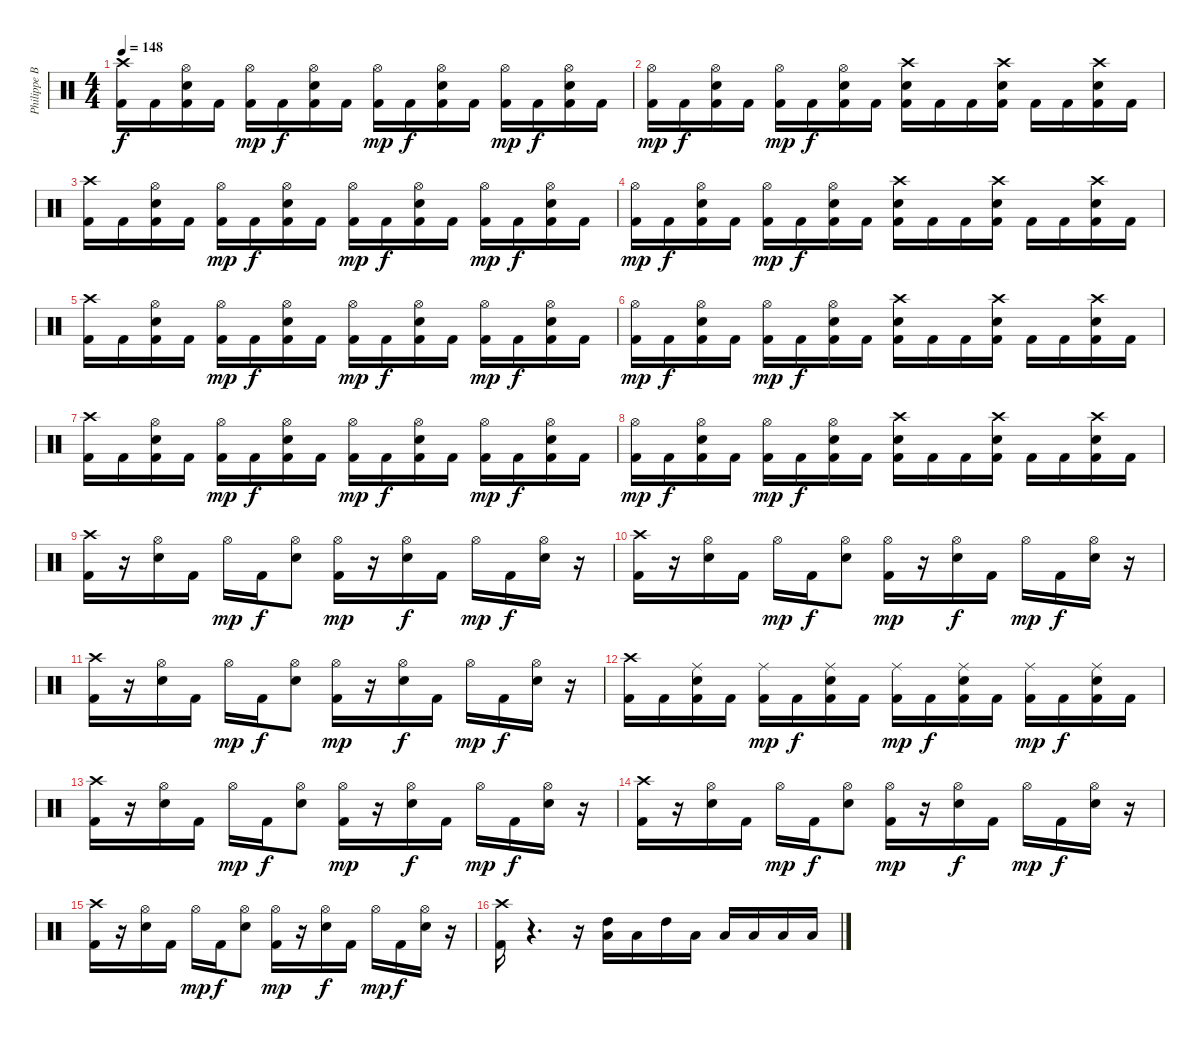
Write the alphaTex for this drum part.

\track ("Philippe Borda" "Philippe B") {instrument percussion}
\staff {score}
\articulation defaults
\ts (4 4)
\tempo 148
\clef neutral
\ks c
("Crash high (hit)" "Kick (hit) 2").16{dy f} "Kick (hit) 2".16 ("Kick (hit) 2" "Snare (hit) 2" "Hi-Hat (open)").16 "Kick (hit) 2".16 ("Kick (hit) 2" "Hi-Hat (open)").16{dy mp} "Kick (hit) 2".16{dy f} ("Kick (hit) 2" "Snare (hit) 2" "Hi-Hat (open)").16 "Kick (hit) 2".16 ("Kick (hit) 2" "Hi-Hat (open)").16{dy mp} "Kick (hit) 2".16{dy f} ("Kick (hit) 2" "Snare (hit) 2" "Hi-Hat (open)").16 "Kick (hit) 2".16 ("Kick (hit) 2" "Hi-Hat (open)").16{dy mp} "Kick (hit) 2".16{dy f} ("Kick (hit) 2" "Snare (hit) 2" "Hi-Hat (open)").16 "Kick (hit) 2".16 |
("Kick (hit) 2" "Hi-Hat (open)").16{dy mp} "Kick (hit) 2".16{dy f} ("Kick (hit) 2" "Snare (hit) 2" "Hi-Hat (open)").16 "Kick (hit) 2".16 ("Kick (hit) 2" "Hi-Hat (open)").16{dy mp} "Kick (hit) 2".16{dy f} ("Kick (hit) 2" "Hi-Hat (open)" "Snare (hit) 2").16 "Kick (hit) 2".16 ("Crash high (hit)" "Kick (hit) 2" "Snare (hit) 2").16 "Kick (hit) 2".16 "Kick (hit) 2".16 ("Crash high (hit)" "Kick (hit) 2" "Snare (hit) 2").16 "Kick (hit) 2".16 "Kick (hit) 2".16 ("Crash high (hit)" "Kick (hit) 2" "Snare (hit) 2").16 "Kick (hit) 2".16 |
("Crash high (hit)" "Kick (hit) 2").16 "Kick (hit) 2".16 ("Kick (hit) 2" "Snare (hit) 2" "Hi-Hat (open)").16 "Kick (hit) 2".16 ("Kick (hit) 2" "Hi-Hat (open)").16{dy mp} "Kick (hit) 2".16{dy f} ("Kick (hit) 2" "Snare (hit) 2" "Hi-Hat (open)").16 "Kick (hit) 2".16 ("Kick (hit) 2" "Hi-Hat (open)").16{dy mp} "Kick (hit) 2".16{dy f} ("Kick (hit) 2" "Snare (hit) 2" "Hi-Hat (open)").16 "Kick (hit) 2".16 ("Kick (hit) 2" "Hi-Hat (open)").16{dy mp} "Kick (hit) 2".16{dy f} ("Kick (hit) 2" "Snare (hit) 2" "Hi-Hat (open)").16 "Kick (hit) 2".16 |
("Kick (hit) 2" "Hi-Hat (open)").16{dy mp} "Kick (hit) 2".16{dy f} ("Kick (hit) 2" "Snare (hit) 2" "Hi-Hat (open)").16 "Kick (hit) 2".16 ("Kick (hit) 2" "Hi-Hat (open)").16{dy mp} "Kick (hit) 2".16{dy f} ("Kick (hit) 2" "Hi-Hat (open)" "Snare (hit) 2").16 "Kick (hit) 2".16 ("Crash high (hit)" "Kick (hit) 2" "Snare (hit) 2").16 "Kick (hit) 2".16 "Kick (hit) 2".16 ("Crash high (hit)" "Kick (hit) 2" "Snare (hit) 2").16 "Kick (hit) 2".16 "Kick (hit) 2".16 ("Crash high (hit)" "Kick (hit) 2" "Snare (hit) 2").16 "Kick (hit) 2".16 |
("Crash high (hit)" "Kick (hit) 2").16 "Kick (hit) 2".16 ("Kick (hit) 2" "Snare (hit) 2" "Hi-Hat (open)").16 "Kick (hit) 2".16 ("Kick (hit) 2" "Hi-Hat (open)").16{dy mp} "Kick (hit) 2".16{dy f} ("Kick (hit) 2" "Snare (hit) 2" "Hi-Hat (open)").16 "Kick (hit) 2".16 ("Kick (hit) 2" "Hi-Hat (open)").16{dy mp} "Kick (hit) 2".16{dy f} ("Kick (hit) 2" "Snare (hit) 2" "Hi-Hat (open)").16 "Kick (hit) 2".16 ("Kick (hit) 2" "Hi-Hat (open)").16{dy mp} "Kick (hit) 2".16{dy f} ("Kick (hit) 2" "Snare (hit) 2" "Hi-Hat (open)").16 "Kick (hit) 2".16 |
("Kick (hit) 2" "Hi-Hat (open)").16{dy mp} "Kick (hit) 2".16{dy f} ("Kick (hit) 2" "Snare (hit) 2" "Hi-Hat (open)").16 "Kick (hit) 2".16 ("Kick (hit) 2" "Hi-Hat (open)").16{dy mp} "Kick (hit) 2".16{dy f} ("Kick (hit) 2" "Hi-Hat (open)" "Snare (hit) 2").16 "Kick (hit) 2".16 ("Crash high (hit)" "Kick (hit) 2" "Snare (hit) 2").16 "Kick (hit) 2".16 "Kick (hit) 2".16 ("Crash high (hit)" "Kick (hit) 2" "Snare (hit) 2").16 "Kick (hit) 2".16 "Kick (hit) 2".16 ("Crash high (hit)" "Kick (hit) 2" "Snare (hit) 2").16 "Kick (hit) 2".16 |
("Crash high (hit)" "Kick (hit) 2").16 "Kick (hit) 2".16 ("Kick (hit) 2" "Snare (hit) 2" "Hi-Hat (open)").16 "Kick (hit) 2".16 ("Kick (hit) 2" "Hi-Hat (open)").16{dy mp} "Kick (hit) 2".16{dy f} ("Kick (hit) 2" "Snare (hit) 2" "Hi-Hat (open)").16 "Kick (hit) 2".16 ("Kick (hit) 2" "Hi-Hat (open)").16{dy mp} "Kick (hit) 2".16{dy f} ("Kick (hit) 2" "Snare (hit) 2" "Hi-Hat (open)").16 "Kick (hit) 2".16 ("Kick (hit) 2" "Hi-Hat (open)").16{dy mp} "Kick (hit) 2".16{dy f} ("Kick (hit) 2" "Snare (hit) 2" "Hi-Hat (open)").16 "Kick (hit) 2".16 |
("Kick (hit) 2" "Hi-Hat (open)").16{dy mp} "Kick (hit) 2".16{dy f} ("Kick (hit) 2" "Snare (hit) 2" "Hi-Hat (open)").16 "Kick (hit) 2".16 ("Kick (hit) 2" "Hi-Hat (open)").16{dy mp} "Kick (hit) 2".16{dy f} ("Kick (hit) 2" "Hi-Hat (open)" "Snare (hit) 2").16 "Kick (hit) 2".16 ("Crash high (hit)" "Kick (hit) 2" "Snare (hit) 2").16 "Kick (hit) 2".16 "Kick (hit) 2".16 ("Crash high (hit)" "Kick (hit) 2" "Snare (hit) 2").16 "Kick (hit) 2".16 "Kick (hit) 2".16 ("Crash high (hit)" "Kick (hit) 2" "Snare (hit) 2").16 "Kick (hit) 2".16 |
("Crash high (hit)" "Kick (hit) 2").16 r.16 ("Hi-Hat (open)" "Snare (hit) 2").16 "Kick (hit) 2".16 "Hi-Hat (open)".16{dy mp} "Kick (hit) 2".16{dy f} ("Hi-Hat (open)" "Snare (hit) 2").8 ("Hi-Hat (open)" "Kick (hit) 2").16{dy mp} r.16 ("Hi-Hat (open)" "Snare (hit) 2").16{dy f} "Kick (hit) 2".16 "Hi-Hat (open)".16{dy mp} "Kick (hit) 2".16{dy f} ("Hi-Hat (open)" "Snare (hit) 2").16 r.16 |
("Crash high (hit)" "Kick (hit) 2").16 r.16 ("Snare (hit) 2" "Hi-Hat (open)").16 "Kick (hit) 2".16 "Hi-Hat (open)".16{dy mp} "Kick (hit) 2".16{dy f} ("Snare (hit) 2" "Hi-Hat (open)").8 ("Kick (hit) 2" "Hi-Hat (open)").16{dy mp} r.16 ("Snare (hit) 2" "Hi-Hat (open)").16{dy f} "Kick (hit) 2".16 "Hi-Hat (open)".16{dy mp} "Kick (hit) 2".16{dy f} ("Snare (hit) 2" "Hi-Hat (open)").16 r.16 |
("Crash high (hit)" "Kick (hit) 2").16 r.16 ("Snare (hit) 2" "Hi-Hat (open)").16 "Kick (hit) 2".16 "Hi-Hat (open)".16{dy mp} "Kick (hit) 2".16{dy f} ("Snare (hit) 2" "Hi-Hat (open)").8 ("Kick (hit) 2" "Hi-Hat (open)").16{dy mp} r.16 ("Snare (hit) 2" "Hi-Hat (open)").16{dy f} "Kick (hit) 2".16 "Hi-Hat (open)".16{dy mp} "Kick (hit) 2".16{dy f} ("Snare (hit) 2" "Hi-Hat (open)").16 r.16 |
("Crash high (hit)" "Kick (hit) 2").16 "Kick (hit) 2".16 ("Kick (hit) 2" "Ride (middle)" "Snare (hit) 2").16 "Kick (hit) 2".16 ("Kick (hit) 2" "Ride (middle)").16{dy mp} "Kick (hit) 2".16{dy f} ("Kick (hit) 2" "Ride (middle)" "Snare (hit) 2").16 "Kick (hit) 2".16 ("Kick (hit) 2" "Ride (middle)").16{dy mp} "Kick (hit) 2".16{dy f} ("Kick (hit) 2" "Ride (middle)" "Snare (hit) 2").16 "Kick (hit) 2".16 ("Kick (hit) 2" "Ride (middle)").16{dy mp} "Kick (hit) 2".16{dy f} ("Kick (hit) 2" "Ride (middle)" "Snare (hit) 2").16 "Kick (hit) 2".16 |
("Crash high (hit)" "Kick (hit) 2").16 r.16 ("Snare (hit) 2" "Hi-Hat (open)").16 "Kick (hit) 2".16 "Hi-Hat (open)".16{dy mp} "Kick (hit) 2".16{dy f} ("Snare (hit) 2" "Hi-Hat (open)").8 ("Kick (hit) 2" "Hi-Hat (open)").16{dy mp} r.16 ("Snare (hit) 2" "Hi-Hat (open)").16{dy f} "Kick (hit) 2".16 "Hi-Hat (open)".16{dy mp} "Kick (hit) 2".16{dy f} ("Snare (hit) 2" "Hi-Hat (open)").16 r.16 |
("Crash high (hit)" "Kick (hit) 2").16 r.16 ("Snare (hit) 2" "Hi-Hat (open)").16 "Kick (hit) 2".16 "Hi-Hat (open)".16{dy mp} "Kick (hit) 2".16{dy f} ("Snare (hit) 2" "Hi-Hat (open)").8 ("Kick (hit) 2" "Hi-Hat (open)").16{dy mp} r.16 ("Snare (hit) 2" "Hi-Hat (open)").16{dy f} "Kick (hit) 2".16 "Hi-Hat (open)".16{dy mp} "Kick (hit) 2".16{dy f} ("Snare (hit) 2" "Hi-Hat (open)").16 r.16 |
("Crash high (hit)" "Kick (hit) 2").16 r.16 ("Snare (hit) 2" "Hi-Hat (open)").16 "Kick (hit) 2".16 "Hi-Hat (open)".16{dy mp} "Kick (hit) 2".16{dy f} ("Snare (hit) 2" "Hi-Hat (open)").8 ("Kick (hit) 2" "Hi-Hat (open)").16{dy mp} r.16 ("Snare (hit) 2" "Hi-Hat (open)").16{dy f} "Kick (hit) 2".16 "Hi-Hat (open)".16{dy mp} "Kick (hit) 2".16{dy f} ("Snare (hit) 2" "Hi-Hat (open)").16 r.16 |
("Crash high (hit)" "Kick (hit) 2").16 r.4{d} r.16 ("Low Tom (hit)" "High Tom (hit)").16 "Low Tom (hit)".16 "High Tom (hit)".16 "Low Tom (hit)".16 "Low Floor Tom (hit)".16 "Low Floor Tom (hit)".16 "Low Floor Tom (hit)".16 "Low Floor Tom (hit)".16
